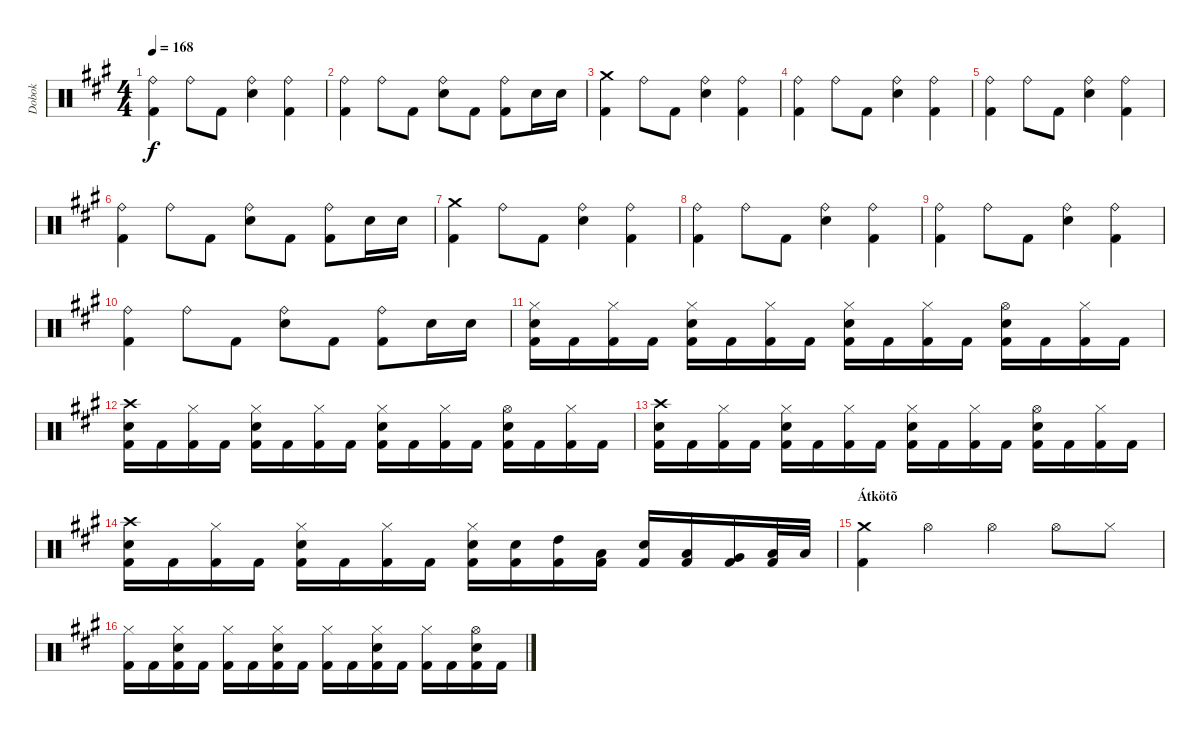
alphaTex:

\track ("Dobok" "Dobok") {instrument percussion}
\staff {score}
\articulation defaults
\ts (4 4)
\tempo 168
\clef neutral
\ks f#minor
("Ride (bell)" "Kick (hit) 2").4{dy f} "Ride (bell)".8 "Kick (hit) 2".8 ("Ride (bell)" "Snare (hit) 2").4 ("Ride (bell)" "Kick (hit) 2").4 |
("Ride (bell)" "Kick (hit) 2").4 "Ride (bell)".8 "Kick (hit) 2".8 ("Ride (bell)" "Snare (hit) 2").8 "Kick (hit) 2".8 ("Ride (bell)" "Kick (hit) 2").8 "Snare (hit) 2".16 "Snare (hit) 2".16 |
("Crash medium (hit)" "Kick (hit) 2").4 "Ride (bell)".8 "Kick (hit) 2".8 ("Ride (bell)" "Snare (hit) 2").4 ("Ride (bell)" "Kick (hit) 2").4 |
("Ride (bell)" "Kick (hit) 2").4 "Ride (bell)".8 "Kick (hit) 2".8 ("Ride (bell)" "Snare (hit) 2").4 ("Ride (bell)" "Kick (hit) 2").4 |
("Ride (bell)" "Kick (hit) 2").4 "Ride (bell)".8 "Kick (hit) 2".8 ("Ride (bell)" "Snare (hit) 2").4 ("Ride (bell)" "Kick (hit) 2").4 |
("Ride (bell)" "Kick (hit) 2").4 "Ride (bell)".8 "Kick (hit) 2".8 ("Ride (bell)" "Snare (hit) 2").8 "Kick (hit) 2".8 ("Ride (bell)" "Kick (hit) 2").8 "Snare (hit) 2".16 "Snare (hit) 2".16 |
("Crash medium (hit)" "Kick (hit) 2").4 "Ride (bell)".8 "Kick (hit) 2".8 ("Ride (bell)" "Snare (hit) 2").4 ("Ride (bell)" "Kick (hit) 2").4 |
("Ride (bell)" "Kick (hit) 2").4 "Ride (bell)".8 "Kick (hit) 2".8 ("Ride (bell)" "Snare (hit) 2").4 ("Ride (bell)" "Kick (hit) 2").4 |
("Ride (bell)" "Kick (hit) 2").4 "Ride (bell)".8 "Kick (hit) 2".8 ("Ride (bell)" "Snare (hit) 2").4 ("Ride (bell)" "Kick (hit) 2").4 |
("Ride (bell)" "Kick (hit) 2").4 "Ride (bell)".8 "Kick (hit) 2".8 ("Ride (bell)" "Snare (hit) 2").8 "Kick (hit) 2".8 ("Ride (bell)" "Kick (hit) 2").8 "Snare (hit) 2".16 "Snare (hit) 2".16 |
("Hi-Hat (closed)" "Snare (hit) 2" "Kick (hit) 2").16 "Kick (hit) 2".16 ("Hi-Hat (closed)" "Kick (hit) 2").16 "Kick (hit) 2".16 ("Hi-Hat (closed)" "Snare (hit) 2" "Kick (hit) 2").16 "Kick (hit) 2".16 ("Hi-Hat (closed)" "Kick (hit) 2").16 "Kick (hit) 2".16 ("Hi-Hat (closed)" "Snare (hit) 2" "Kick (hit) 2").16 "Kick (hit) 2".16 ("Hi-Hat (closed)" "Kick (hit) 2").16 "Kick (hit) 2".16 ("Hi-Hat (open)" "Snare (hit) 2" "Kick (hit) 2").16 "Kick (hit) 2".16 ("Hi-Hat (closed)" "Kick (hit) 2").16 "Kick (hit) 2".16 |
("Crash high (hit)" "Snare (hit) 2" "Kick (hit) 2").16 "Kick (hit) 2".16 ("Hi-Hat (closed)" "Kick (hit) 2").16 "Kick (hit) 2".16 ("Hi-Hat (closed)" "Snare (hit) 2" "Kick (hit) 2").16 "Kick (hit) 2".16 ("Hi-Hat (closed)" "Kick (hit) 2").16 "Kick (hit) 2".16 ("Hi-Hat (closed)" "Snare (hit) 2" "Kick (hit) 2").16 "Kick (hit) 2".16 ("Hi-Hat (closed)" "Kick (hit) 2").16 "Kick (hit) 2".16 ("Hi-Hat (open)" "Snare (hit) 2" "Kick (hit) 2").16 "Kick (hit) 2".16 ("Hi-Hat (closed)" "Kick (hit) 2").16 "Kick (hit) 2".16 |
("Crash high (hit)" "Snare (hit) 2" "Kick (hit) 2").16 "Kick (hit) 2".16 ("Hi-Hat (closed)" "Kick (hit) 2").16 "Kick (hit) 2".16 ("Hi-Hat (closed)" "Snare (hit) 2" "Kick (hit) 2").16 "Kick (hit) 2".16 ("Hi-Hat (closed)" "Kick (hit) 2").16 "Kick (hit) 2".16 ("Hi-Hat (closed)" "Snare (hit) 2" "Kick (hit) 2").16 "Kick (hit) 2".16 ("Hi-Hat (closed)" "Kick (hit) 2").16 "Kick (hit) 2".16 ("Hi-Hat (open)" "Snare (hit) 2" "Kick (hit) 2").16 "Kick (hit) 2".16 ("Hi-Hat (closed)" "Kick (hit) 2").16 "Kick (hit) 2".16 |
("Crash high (hit)" "Snare (hit) 2" "Kick (hit) 2").16 "Kick (hit) 2".16 ("Hi-Hat (closed)" "Kick (hit) 2").16 "Kick (hit) 2".16 ("Hi-Hat (closed)" "Snare (hit) 2" "Kick (hit) 2").16 "Kick (hit) 2".16 ("Hi-Hat (closed)" "Kick (hit) 2").16 "Kick (hit) 2".16 ("Hi-Hat (closed)" "Snare (hit) 2" "Kick (hit) 2").16 ("Snare (hit) 2" "Kick (hit) 2").16 ("High Tom (hit)" "Kick (hit) 2").16 ("Low Tom (hit)" "Kick (hit) 2").16 ("Snare (hit) 2" "Kick (hit) 2").16 ("Low Tom (hit)" "Kick (hit) 2").16 ("Very Low Tom (hit)" "Kick (hit) 2").16 ("Low Floor Tom (hit)" "Kick (hit) 2").32 "Low Floor Tom (hit)".32 |
\section ("" "Átkötõ")
("Crash medium (hit)" "Kick (hit) 2").4 "Hi-Hat (open)".4 "Hi-Hat (open)".4 "Hi-Hat (open)".8 "Hi-Hat (closed)".8 |
("Hi-Hat (closed)" "Kick (hit) 2").16 "Kick (hit) 2".16 ("Hi-Hat (closed)" "Snare (hit) 2" "Kick (hit) 2").16 "Kick (hit) 2".16 ("Hi-Hat (closed)" "Kick (hit) 2").16 "Kick (hit) 2".16 ("Hi-Hat (closed)" "Snare (hit) 2" "Kick (hit) 2").16 "Kick (hit) 2".16 ("Hi-Hat (closed)" "Kick (hit) 2").16 "Kick (hit) 2".16 ("Hi-Hat (closed)" "Snare (hit) 2" "Kick (hit) 2").16 "Kick (hit) 2".16 ("Hi-Hat (closed)" "Kick (hit) 2").16 "Kick (hit) 2".16 ("Hi-Hat (open)" "Snare (hit) 2" "Kick (hit) 2").16 "Kick (hit) 2".16
